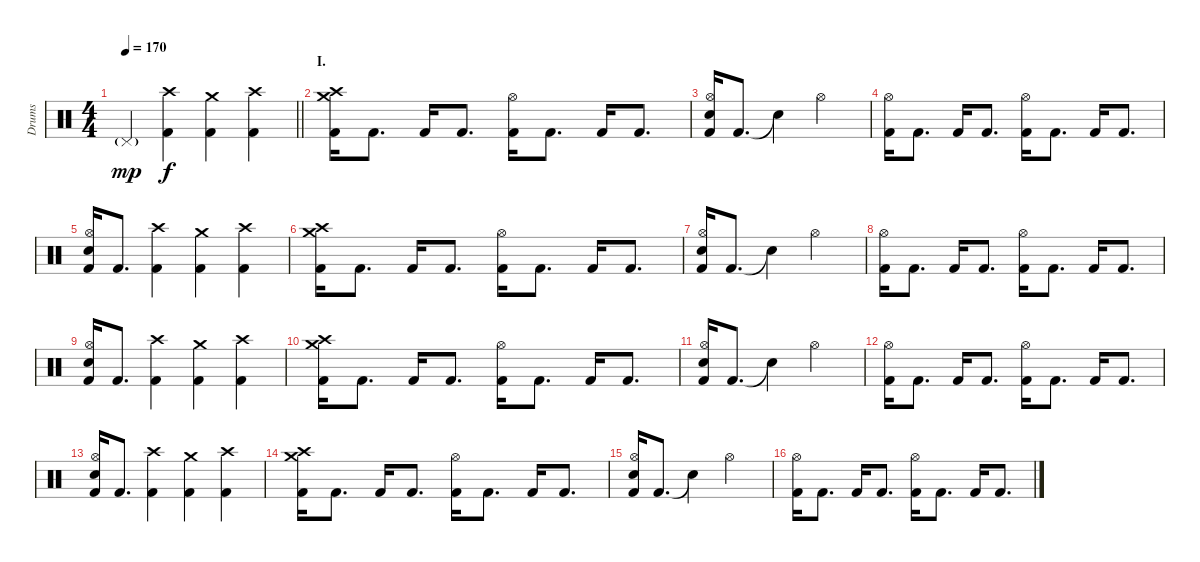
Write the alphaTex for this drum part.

\track ("Drums" "Drums") {instrument percussion}
\staff {score}
\articulation defaults
\ts (4 4)
\tempo 170
\clef neutral
\barLineRight lightlight
\ks c "Pedal Hi-Hat (hit)"{g}.4{dy mp}
("Crash high (hit)" "Kick (hit) 2").4{dy f} ("Crash medium (hit)" "Kick (hit) 2").4 ("Crash high (hit)" "Kick (hit) 2").4 |
\section ("" "I.")
("Crash medium (hit)" "Crash high (hit)" "Kick (hit) 2").16 "Kick (hit) 2".8{d} "Kick (hit) 2".16 "Kick (hit) 2".8{d} ("Hi-Hat (open)" "Kick (hit) 2").16 "Kick (hit) 2".8{d} "Kick (hit) 2".16 "Kick (hit) 2".8{d} |
("Hi-Hat (open)" "Electric Snare (hit)" "Kick (hit) 2").16 "Kick (hit) 2".8{d} "Snare (hit)"{t}.4 "Hi-Hat (open)".2 |
("Hi-Hat (open)" "Kick (hit) 2").16 "Kick (hit) 2".8{d} "Kick (hit) 2".16 "Kick (hit) 2".8{d} ("Hi-Hat (open)" "Kick (hit) 2").16 "Kick (hit) 2".8{d} "Kick (hit) 2".16 "Kick (hit) 2".8{d} |
("Hi-Hat (open)" "Electric Snare (hit)" "Kick (hit) 2").16 "Kick (hit) 2".8{d} ("Crash high (hit)" "Kick (hit) 2").4 ("Crash medium (hit)" "Kick (hit) 2").4 ("Crash high (hit)" "Kick (hit) 2").4 |
("Crash medium (hit)" "Crash high (hit)" "Kick (hit) 2").16 "Kick (hit) 2".8{d} "Kick (hit) 2".16 "Kick (hit) 2".8{d} ("Hi-Hat (open)" "Kick (hit) 2").16 "Kick (hit) 2".8{d} "Kick (hit) 2".16 "Kick (hit) 2".8{d} |
("Hi-Hat (open)" "Electric Snare (hit)" "Kick (hit) 2").16 "Kick (hit) 2".8{d} "Snare (hit)"{t}.4 "Hi-Hat (open)".2 |
("Hi-Hat (open)" "Kick (hit) 2").16 "Kick (hit) 2".8{d} "Kick (hit) 2".16 "Kick (hit) 2".8{d} ("Hi-Hat (open)" "Kick (hit) 2").16 "Kick (hit) 2".8{d} "Kick (hit) 2".16 "Kick (hit) 2".8{d} |
("Hi-Hat (open)" "Electric Snare (hit)" "Kick (hit) 2").16 "Kick (hit) 2".8{d} ("Crash high (hit)" "Kick (hit) 2").4 ("Crash medium (hit)" "Kick (hit) 2").4 ("Crash high (hit)" "Kick (hit) 2").4 |
("Crash medium (hit)" "Crash high (hit)" "Kick (hit) 2").16 "Kick (hit) 2".8{d} "Kick (hit) 2".16 "Kick (hit) 2".8{d} ("Hi-Hat (open)" "Kick (hit) 2").16 "Kick (hit) 2".8{d} "Kick (hit) 2".16 "Kick (hit) 2".8{d} |
("Hi-Hat (open)" "Electric Snare (hit)" "Kick (hit) 2").16 "Kick (hit) 2".8{d} "Snare (hit)"{t}.4 "Hi-Hat (open)".2 |
("Hi-Hat (open)" "Kick (hit) 2").16 "Kick (hit) 2".8{d} "Kick (hit) 2".16 "Kick (hit) 2".8{d} ("Hi-Hat (open)" "Kick (hit) 2").16 "Kick (hit) 2".8{d} "Kick (hit) 2".16 "Kick (hit) 2".8{d} |
("Hi-Hat (open)" "Electric Snare (hit)" "Kick (hit) 2").16 "Kick (hit) 2".8{d} ("Crash high (hit)" "Kick (hit) 2").4 ("Crash medium (hit)" "Kick (hit) 2").4 ("Crash high (hit)" "Kick (hit) 2").4 |
("Crash medium (hit)" "Crash high (hit)" "Kick (hit) 2").16 "Kick (hit) 2".8{d} "Kick (hit) 2".16 "Kick (hit) 2".8{d} ("Hi-Hat (open)" "Kick (hit) 2").16 "Kick (hit) 2".8{d} "Kick (hit) 2".16 "Kick (hit) 2".8{d} |
("Hi-Hat (open)" "Electric Snare (hit)" "Kick (hit) 2").16 "Kick (hit) 2".8{d} "Snare (hit)"{t}.4 "Hi-Hat (open)".2 |
("Hi-Hat (open)" "Kick (hit) 2").16 "Kick (hit) 2".8{d} "Kick (hit) 2".16 "Kick (hit) 2".8{d} ("Hi-Hat (open)" "Kick (hit) 2").16 "Kick (hit) 2".8{d} "Kick (hit) 2".16 "Kick (hit) 2".8{d}
